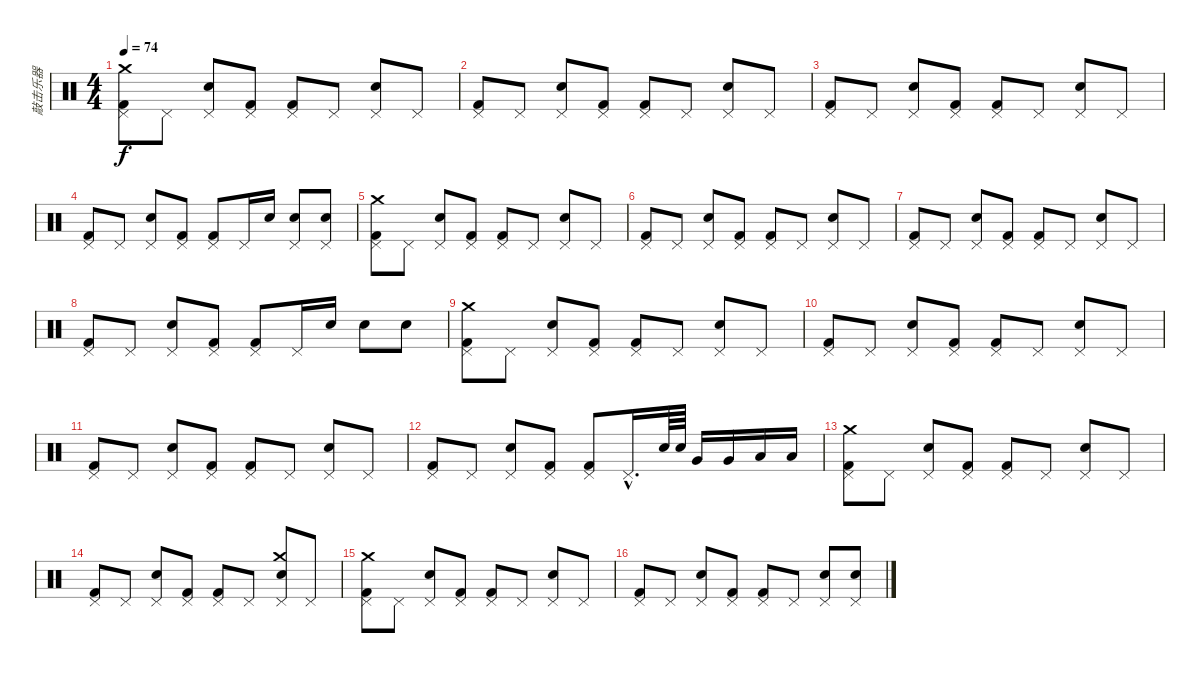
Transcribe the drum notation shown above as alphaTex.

\track ("敲击乐器" "敲击乐器") {instrument percussion}
\staff {score}
\articulation defaults
\ts (4 4)
\tempo 74
\clef neutral
\ks c
("Pedal Hi-Hat (hit)" "Kick (hit) 2" "Crash medium (hit)").8{dy f} "Pedal Hi-Hat (hit)".8 ("Pedal Hi-Hat (hit)" "Electric Snare (hit)").8 ("Pedal Hi-Hat (hit)" "Kick (hit) 2").8 ("Pedal Hi-Hat (hit)" "Kick (hit) 2").8 "Pedal Hi-Hat (hit)".8 ("Pedal Hi-Hat (hit)" "Electric Snare (hit)").8 "Pedal Hi-Hat (hit)".8 |
("Pedal Hi-Hat (hit)" "Kick (hit) 2").8 "Pedal Hi-Hat (hit)".8 ("Pedal Hi-Hat (hit)" "Electric Snare (hit)").8 ("Pedal Hi-Hat (hit)" "Kick (hit) 2").8 ("Pedal Hi-Hat (hit)" "Kick (hit) 2").8 "Pedal Hi-Hat (hit)".8 ("Pedal Hi-Hat (hit)" "Electric Snare (hit)").8 "Pedal Hi-Hat (hit)".8 |
("Pedal Hi-Hat (hit)" "Kick (hit) 2").8 "Pedal Hi-Hat (hit)".8 ("Pedal Hi-Hat (hit)" "Electric Snare (hit)").8 ("Pedal Hi-Hat (hit)" "Kick (hit) 2").8 ("Pedal Hi-Hat (hit)" "Kick (hit) 2").8 "Pedal Hi-Hat (hit)".8 ("Pedal Hi-Hat (hit)" "Electric Snare (hit)").8 "Pedal Hi-Hat (hit)".8 |
("Pedal Hi-Hat (hit)" "Kick (hit) 2").8 "Pedal Hi-Hat (hit)".8 ("Pedal Hi-Hat (hit)" "Electric Snare (hit)").8 ("Pedal Hi-Hat (hit)" "Kick (hit) 2").8 ("Pedal Hi-Hat (hit)" "Kick (hit) 2").8 "Pedal Hi-Hat (hit)".16 "Electric Snare (hit)".16 ("Pedal Hi-Hat (hit)" "Electric Snare (hit)").8 ("Pedal Hi-Hat (hit)" "Electric Snare (hit)").8 |
("Pedal Hi-Hat (hit)" "Kick (hit) 2" "Crash medium (hit)").8 "Pedal Hi-Hat (hit)".8 ("Pedal Hi-Hat (hit)" "Electric Snare (hit)").8 ("Pedal Hi-Hat (hit)" "Kick (hit) 2").8 ("Pedal Hi-Hat (hit)" "Kick (hit) 2").8 "Pedal Hi-Hat (hit)".8 ("Pedal Hi-Hat (hit)" "Electric Snare (hit)").8 "Pedal Hi-Hat (hit)".8 |
("Pedal Hi-Hat (hit)" "Kick (hit) 2").8 "Pedal Hi-Hat (hit)".8 ("Pedal Hi-Hat (hit)" "Electric Snare (hit)").8 ("Pedal Hi-Hat (hit)" "Kick (hit) 2").8 ("Pedal Hi-Hat (hit)" "Kick (hit) 2").8 "Pedal Hi-Hat (hit)".8 ("Pedal Hi-Hat (hit)" "Electric Snare (hit)").8 "Pedal Hi-Hat (hit)".8 |
("Pedal Hi-Hat (hit)" "Kick (hit) 2").8 "Pedal Hi-Hat (hit)".8 ("Pedal Hi-Hat (hit)" "Electric Snare (hit)").8 ("Pedal Hi-Hat (hit)" "Kick (hit) 2").8 ("Pedal Hi-Hat (hit)" "Kick (hit) 2").8 "Pedal Hi-Hat (hit)".8 ("Pedal Hi-Hat (hit)" "Electric Snare (hit)").8 "Pedal Hi-Hat (hit)".8 |
("Pedal Hi-Hat (hit)" "Kick (hit) 2").8 "Pedal Hi-Hat (hit)".8 ("Pedal Hi-Hat (hit)" "Electric Snare (hit)").8 ("Pedal Hi-Hat (hit)" "Kick (hit) 2").8 ("Pedal Hi-Hat (hit)" "Kick (hit) 2").8 "Pedal Hi-Hat (hit)".16 "Electric Snare (hit)".16 "Electric Snare (hit)".8 "Electric Snare (hit)".8 |
("Pedal Hi-Hat (hit)" "Kick (hit) 2" "Crash medium (hit)").8 "Pedal Hi-Hat (hit)".8 ("Pedal Hi-Hat (hit)" "Electric Snare (hit)").8 ("Pedal Hi-Hat (hit)" "Kick (hit) 2").8 ("Pedal Hi-Hat (hit)" "Kick (hit) 2").8 "Pedal Hi-Hat (hit)".8 ("Pedal Hi-Hat (hit)" "Electric Snare (hit)").8 "Pedal Hi-Hat (hit)".8 |
("Pedal Hi-Hat (hit)" "Kick (hit) 2").8 "Pedal Hi-Hat (hit)".8 ("Pedal Hi-Hat (hit)" "Electric Snare (hit)").8 ("Pedal Hi-Hat (hit)" "Kick (hit) 2").8 ("Pedal Hi-Hat (hit)" "Kick (hit) 2").8 "Pedal Hi-Hat (hit)".8 ("Pedal Hi-Hat (hit)" "Electric Snare (hit)").8 "Pedal Hi-Hat (hit)".8 |
("Pedal Hi-Hat (hit)" "Kick (hit) 2").8 "Pedal Hi-Hat (hit)".8 ("Pedal Hi-Hat (hit)" "Electric Snare (hit)").8 ("Pedal Hi-Hat (hit)" "Kick (hit) 2").8 ("Pedal Hi-Hat (hit)" "Kick (hit) 2").8 "Pedal Hi-Hat (hit)".8 ("Pedal Hi-Hat (hit)" "Electric Snare (hit)").8 "Pedal Hi-Hat (hit)".8 |
("Pedal Hi-Hat (hit)" "Kick (hit) 2").8 "Pedal Hi-Hat (hit)".8 ("Pedal Hi-Hat (hit)" "Electric Snare (hit)").8 ("Pedal Hi-Hat (hit)" "Kick (hit) 2").8 ("Pedal Hi-Hat (hit)" "Kick (hit) 2").8 "Pedal Hi-Hat (hit)"{hac}.16{d} "Electric Snare (hit)".64 "Electric Snare (hit)".64 "Very Low Tom (hit)".16 "Very Low Tom (hit)".16 "Low Tom (hit)".16 "Low Tom (hit)".16 |
("Pedal Hi-Hat (hit)" "Kick (hit) 2" "Crash medium (hit)").8 "Pedal Hi-Hat (hit)".8 ("Pedal Hi-Hat (hit)" "Electric Snare (hit)").8 ("Pedal Hi-Hat (hit)" "Kick (hit) 2").8 ("Pedal Hi-Hat (hit)" "Kick (hit) 2").8 "Pedal Hi-Hat (hit)".8 ("Pedal Hi-Hat (hit)" "Electric Snare (hit)").8 "Pedal Hi-Hat (hit)".8 |
("Pedal Hi-Hat (hit)" "Kick (hit) 2").8 "Pedal Hi-Hat (hit)".8 ("Pedal Hi-Hat (hit)" "Electric Snare (hit)").8 ("Pedal Hi-Hat (hit)" "Kick (hit) 2").8 ("Pedal Hi-Hat (hit)" "Kick (hit) 2").8 "Pedal Hi-Hat (hit)".8 ("Pedal Hi-Hat (hit)" "Electric Snare (hit)" "Crash medium (hit)").8 "Pedal Hi-Hat (hit)".8 |
("Pedal Hi-Hat (hit)" "Kick (hit) 2" "Crash medium (hit)").8 "Pedal Hi-Hat (hit)".8 ("Pedal Hi-Hat (hit)" "Electric Snare (hit)").8 ("Pedal Hi-Hat (hit)" "Kick (hit) 2").8 ("Pedal Hi-Hat (hit)" "Kick (hit) 2").8 "Pedal Hi-Hat (hit)".8 ("Pedal Hi-Hat (hit)" "Electric Snare (hit)").8 "Pedal Hi-Hat (hit)".8 |
("Pedal Hi-Hat (hit)" "Kick (hit) 2").8 "Pedal Hi-Hat (hit)".8 ("Pedal Hi-Hat (hit)" "Electric Snare (hit)").8 ("Pedal Hi-Hat (hit)" "Kick (hit) 2").8 ("Pedal Hi-Hat (hit)" "Kick (hit) 2").8 "Pedal Hi-Hat (hit)".8 ("Pedal Hi-Hat (hit)" "Electric Snare (hit)").8 ("Pedal Hi-Hat (hit)" "Electric Snare (hit)").8
